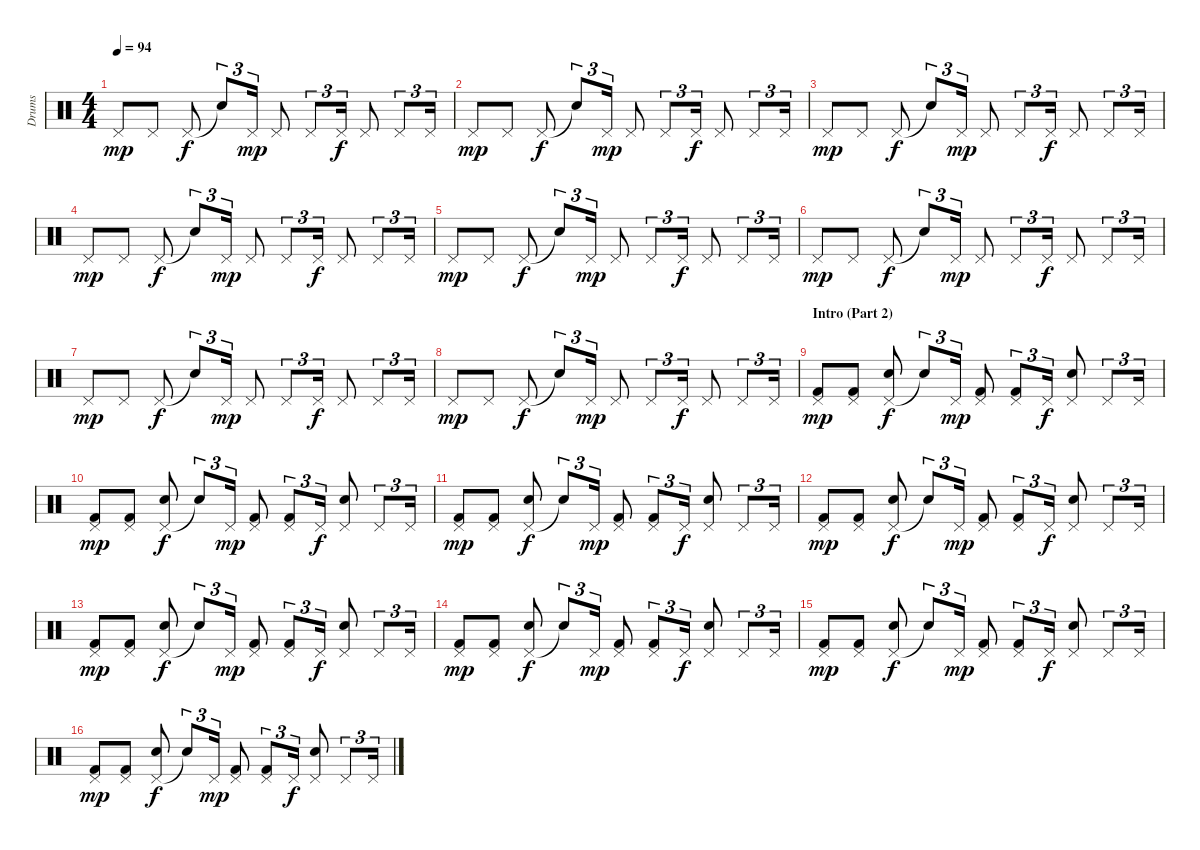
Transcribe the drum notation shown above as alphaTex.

\track ("Drums" "Drums") {instrument percussion}
\staff {score}
\articulation defaults
\ts (4 4)
\tempo 94
\clef neutral
\ks c "Pedal Hi-Hat (hit)".8{dy mp} "Pedal Hi-Hat (hit)".8 "Pedal Hi-Hat (hit)".8{dy f} "Snare (hit)"{t}.8{tu (3 2)} "Pedal Hi-Hat (hit)".16{tu (3 2) dy mp} "Pedal Hi-Hat (hit)".8 "Pedal Hi-Hat (hit)".8{tu (3 2)} "Pedal Hi-Hat (hit)".16{tu (3 2) dy f} "Pedal Hi-Hat (hit)".8 "Pedal Hi-Hat (hit)".8{tu (3 2)} "Pedal Hi-Hat (hit)".16{tu (3 2)}
|
"Pedal Hi-Hat (hit)".8{dy mp} "Pedal Hi-Hat (hit)".8 "Pedal Hi-Hat (hit)".8{dy f} "Snare (hit)"{t}.8{tu (3 2)} "Pedal Hi-Hat (hit)".16{tu (3 2) dy mp} "Pedal Hi-Hat (hit)".8 "Pedal Hi-Hat (hit)".8{tu (3 2)} "Pedal Hi-Hat (hit)".16{tu (3 2) dy f} "Pedal Hi-Hat (hit)".8 "Pedal Hi-Hat (hit)".8{tu (3 2)} "Pedal Hi-Hat (hit)".16{tu (3 2)} |
"Pedal Hi-Hat (hit)".8{dy mp} "Pedal Hi-Hat (hit)".8 "Pedal Hi-Hat (hit)".8{dy f} "Snare (hit)"{t}.8{tu (3 2)} "Pedal Hi-Hat (hit)".16{tu (3 2) dy mp} "Pedal Hi-Hat (hit)".8 "Pedal Hi-Hat (hit)".8{tu (3 2)} "Pedal Hi-Hat (hit)".16{tu (3 2) dy f} "Pedal Hi-Hat (hit)".8 "Pedal Hi-Hat (hit)".8{tu (3 2)} "Pedal Hi-Hat (hit)".16{tu (3 2)} |
"Pedal Hi-Hat (hit)".8{dy mp} "Pedal Hi-Hat (hit)".8 "Pedal Hi-Hat (hit)".8{dy f} "Snare (hit)"{t}.8{tu (3 2)} "Pedal Hi-Hat (hit)".16{tu (3 2) dy mp} "Pedal Hi-Hat (hit)".8 "Pedal Hi-Hat (hit)".8{tu (3 2)} "Pedal Hi-Hat (hit)".16{tu (3 2) dy f} "Pedal Hi-Hat (hit)".8 "Pedal Hi-Hat (hit)".8{tu (3 2)} "Pedal Hi-Hat (hit)".16{tu (3 2)} |
"Pedal Hi-Hat (hit)".8{dy mp} "Pedal Hi-Hat (hit)".8 "Pedal Hi-Hat (hit)".8{dy f} "Snare (hit)"{t}.8{tu (3 2)} "Pedal Hi-Hat (hit)".16{tu (3 2) dy mp} "Pedal Hi-Hat (hit)".8 "Pedal Hi-Hat (hit)".8{tu (3 2)} "Pedal Hi-Hat (hit)".16{tu (3 2) dy f} "Pedal Hi-Hat (hit)".8 "Pedal Hi-Hat (hit)".8{tu (3 2)} "Pedal Hi-Hat (hit)".16{tu (3 2)} |
"Pedal Hi-Hat (hit)".8{dy mp} "Pedal Hi-Hat (hit)".8 "Pedal Hi-Hat (hit)".8{dy f} "Snare (hit)"{t}.8{tu (3 2)} "Pedal Hi-Hat (hit)".16{tu (3 2) dy mp} "Pedal Hi-Hat (hit)".8 "Pedal Hi-Hat (hit)".8{tu (3 2)} "Pedal Hi-Hat (hit)".16{tu (3 2) dy f} "Pedal Hi-Hat (hit)".8 "Pedal Hi-Hat (hit)".8{tu (3 2)} "Pedal Hi-Hat (hit)".16{tu (3 2)} |
"Pedal Hi-Hat (hit)".8{dy mp} "Pedal Hi-Hat (hit)".8 "Pedal Hi-Hat (hit)".8{dy f} "Snare (hit)"{t}.8{tu (3 2)} "Pedal Hi-Hat (hit)".16{tu (3 2) dy mp} "Pedal Hi-Hat (hit)".8 "Pedal Hi-Hat (hit)".8{tu (3 2)} "Pedal Hi-Hat (hit)".16{tu (3 2) dy f} "Pedal Hi-Hat (hit)".8 "Pedal Hi-Hat (hit)".8{tu (3 2)} "Pedal Hi-Hat (hit)".16{tu (3 2)} |
"Pedal Hi-Hat (hit)".8{dy mp} "Pedal Hi-Hat (hit)".8 "Pedal Hi-Hat (hit)".8{dy f} "Snare (hit)"{t}.8{tu (3 2)} "Pedal Hi-Hat (hit)".16{tu (3 2) dy mp} "Pedal Hi-Hat (hit)".8 "Pedal Hi-Hat (hit)".8{tu (3 2)} "Pedal Hi-Hat (hit)".16{tu (3 2) dy f} "Pedal Hi-Hat (hit)".8 "Pedal Hi-Hat (hit)".8{tu (3 2)} "Pedal Hi-Hat (hit)".16{tu (3 2)} |
\section ("" "Intro (Part 2)")
("Pedal Hi-Hat (hit)" "Kick (hit) 2").8{dy mp} ("Pedal Hi-Hat (hit)" "Kick (hit) 2").8 ("Pedal Hi-Hat (hit)" "Electric Snare (hit)").8{dy f} "Snare (hit)"{t}.8{tu (3 2)} "Pedal Hi-Hat (hit)".16{tu (3 2) dy mp} ("Pedal Hi-Hat (hit)" "Kick (hit) 2").8 ("Pedal Hi-Hat (hit)" "Kick (hit) 2").8{tu (3 2)} "Pedal Hi-Hat (hit)".16{tu (3 2) dy f} ("Pedal Hi-Hat (hit)" "Electric Snare (hit)").8 "Pedal Hi-Hat (hit)".8{tu (3 2)} "Pedal Hi-Hat (hit)".16{tu (3 2)} |
("Pedal Hi-Hat (hit)" "Kick (hit) 2").8{dy mp} ("Pedal Hi-Hat (hit)" "Kick (hit) 2").8 ("Pedal Hi-Hat (hit)" "Electric Snare (hit)").8{dy f} "Snare (hit)"{t}.8{tu (3 2)} "Pedal Hi-Hat (hit)".16{tu (3 2) dy mp} ("Pedal Hi-Hat (hit)" "Kick (hit) 2").8 ("Pedal Hi-Hat (hit)" "Kick (hit) 2").8{tu (3 2)} "Pedal Hi-Hat (hit)".16{tu (3 2) dy f} ("Pedal Hi-Hat (hit)" "Electric Snare (hit)").8 "Pedal Hi-Hat (hit)".8{tu (3 2)} "Pedal Hi-Hat (hit)".16{tu (3 2)} |
("Pedal Hi-Hat (hit)" "Kick (hit) 2").8{dy mp} ("Pedal Hi-Hat (hit)" "Kick (hit) 2").8 ("Pedal Hi-Hat (hit)" "Electric Snare (hit)").8{dy f} "Snare (hit)"{t}.8{tu (3 2)} "Pedal Hi-Hat (hit)".16{tu (3 2) dy mp} ("Pedal Hi-Hat (hit)" "Kick (hit) 2").8 ("Pedal Hi-Hat (hit)" "Kick (hit) 2").8{tu (3 2)} "Pedal Hi-Hat (hit)".16{tu (3 2) dy f} ("Pedal Hi-Hat (hit)" "Electric Snare (hit)").8 "Pedal Hi-Hat (hit)".8{tu (3 2)} "Pedal Hi-Hat (hit)".16{tu (3 2)} |
("Pedal Hi-Hat (hit)" "Kick (hit) 2").8{dy mp} ("Pedal Hi-Hat (hit)" "Kick (hit) 2").8 ("Pedal Hi-Hat (hit)" "Electric Snare (hit)").8{dy f} "Snare (hit)"{t}.8{tu (3 2)} "Pedal Hi-Hat (hit)".16{tu (3 2) dy mp} ("Pedal Hi-Hat (hit)" "Kick (hit) 2").8 ("Pedal Hi-Hat (hit)" "Kick (hit) 2").8{tu (3 2)} "Pedal Hi-Hat (hit)".16{tu (3 2) dy f} ("Pedal Hi-Hat (hit)" "Electric Snare (hit)").8 "Pedal Hi-Hat (hit)".8{tu (3 2)} "Pedal Hi-Hat (hit)".16{tu (3 2)} |
("Pedal Hi-Hat (hit)" "Kick (hit) 2").8{dy mp} ("Pedal Hi-Hat (hit)" "Kick (hit) 2").8 ("Pedal Hi-Hat (hit)" "Electric Snare (hit)").8{dy f} "Snare (hit)"{t}.8{tu (3 2)} "Pedal Hi-Hat (hit)".16{tu (3 2) dy mp} ("Pedal Hi-Hat (hit)" "Kick (hit) 2").8 ("Pedal Hi-Hat (hit)" "Kick (hit) 2").8{tu (3 2)} "Pedal Hi-Hat (hit)".16{tu (3 2) dy f} ("Pedal Hi-Hat (hit)" "Electric Snare (hit)").8 "Pedal Hi-Hat (hit)".8{tu (3 2)} "Pedal Hi-Hat (hit)".16{tu (3 2)} |
("Pedal Hi-Hat (hit)" "Kick (hit) 2").8{dy mp} ("Pedal Hi-Hat (hit)" "Kick (hit) 2").8 ("Pedal Hi-Hat (hit)" "Electric Snare (hit)").8{dy f} "Snare (hit)"{t}.8{tu (3 2)} "Pedal Hi-Hat (hit)".16{tu (3 2) dy mp} ("Pedal Hi-Hat (hit)" "Kick (hit) 2").8 ("Pedal Hi-Hat (hit)" "Kick (hit) 2").8{tu (3 2)} "Pedal Hi-Hat (hit)".16{tu (3 2) dy f} ("Pedal Hi-Hat (hit)" "Electric Snare (hit)").8 "Pedal Hi-Hat (hit)".8{tu (3 2)} "Pedal Hi-Hat (hit)".16{tu (3 2)} |
("Pedal Hi-Hat (hit)" "Kick (hit) 2").8{dy mp} ("Pedal Hi-Hat (hit)" "Kick (hit) 2").8 ("Pedal Hi-Hat (hit)" "Electric Snare (hit)").8{dy f} "Snare (hit)"{t}.8{tu (3 2)} "Pedal Hi-Hat (hit)".16{tu (3 2) dy mp} ("Pedal Hi-Hat (hit)" "Kick (hit) 2").8 ("Pedal Hi-Hat (hit)" "Kick (hit) 2").8{tu (3 2)} "Pedal Hi-Hat (hit)".16{tu (3 2) dy f} ("Pedal Hi-Hat (hit)" "Electric Snare (hit)").8 "Pedal Hi-Hat (hit)".8{tu (3 2)} "Pedal Hi-Hat (hit)".16{tu (3 2)} |
("Pedal Hi-Hat (hit)" "Kick (hit) 2").8{dy mp} ("Pedal Hi-Hat (hit)" "Kick (hit) 2").8 ("Pedal Hi-Hat (hit)" "Electric Snare (hit)").8{dy f} "Snare (hit)"{t}.8{tu (3 2)} "Pedal Hi-Hat (hit)".16{tu (3 2) dy mp} ("Pedal Hi-Hat (hit)" "Kick (hit) 2").8 ("Pedal Hi-Hat (hit)" "Kick (hit) 2").8{tu (3 2)} "Pedal Hi-Hat (hit)".16{tu (3 2) dy f} ("Pedal Hi-Hat (hit)" "Electric Snare (hit)").8 "Pedal Hi-Hat (hit)".8{tu (3 2)} "Pedal Hi-Hat (hit)".16{tu (3 2)}
